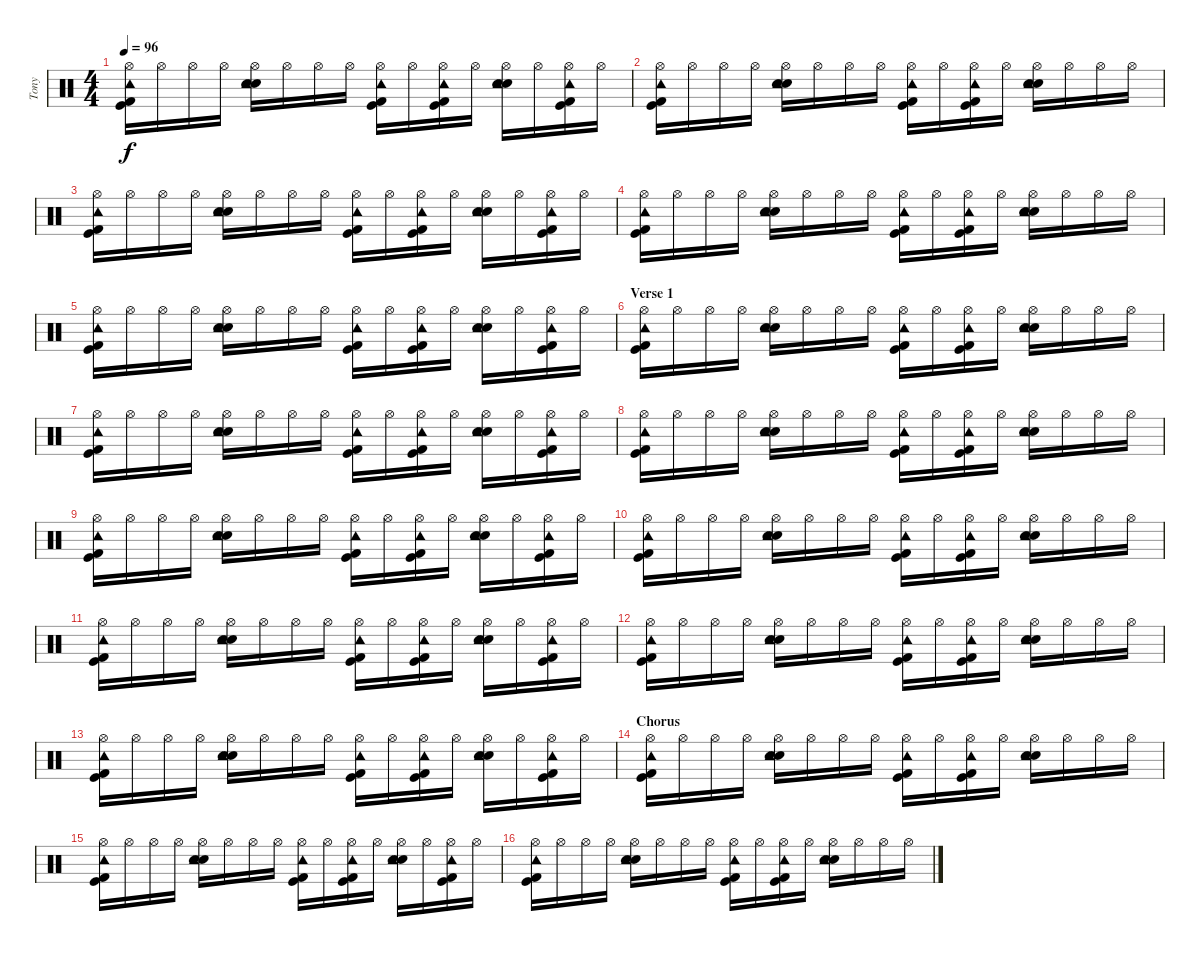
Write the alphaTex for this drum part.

\track ("Tony" "Tony") {instrument percussion}
\staff {score}
\articulation defaults
\ts (4 4)
\tempo 96
\clef neutral
\ks c
("Kick (hit)" "Kick (hit) 2" "Tambourine (hit)" "Hi-Hat (open)").16{dy f} "Hi-Hat (open)".16 "Hi-Hat (open)".16 "Hi-Hat (open)".16 ("Electric Snare (hit)" "Snare (hit) 2" "Tambourine (hit)" "Hi-Hat (open)").16 "Hi-Hat (open)".16 "Hi-Hat (open)".16 "Hi-Hat (open)".16 ("Kick (hit)" "Kick (hit) 2" "Tambourine (hit)" "Hi-Hat (open)").16 "Hi-Hat (open)".16 ("Kick (hit)" "Kick (hit) 2" "Tambourine (hit)" "Hi-Hat (open)").16 "Hi-Hat (open)".16 ("Electric Snare (hit)" "Snare (hit) 2" "Tambourine (hit)" "Hi-Hat (open)").16 "Hi-Hat (open)".16 ("Kick (hit)" "Kick (hit) 2" "Tambourine (hit)" "Hi-Hat (open)").16 "Hi-Hat (open)".16 |
("Kick (hit)" "Kick (hit) 2" "Tambourine (hit)" "Hi-Hat (open)").16 "Hi-Hat (open)".16 "Hi-Hat (open)".16 "Hi-Hat (open)".16 ("Electric Snare (hit)" "Snare (hit) 2" "Tambourine (hit)" "Hi-Hat (open)").16 "Hi-Hat (open)".16 "Hi-Hat (open)".16 "Hi-Hat (open)".16 ("Kick (hit)" "Kick (hit) 2" "Tambourine (hit)" "Hi-Hat (open)").16 "Hi-Hat (open)".16 ("Kick (hit)" "Kick (hit) 2" "Tambourine (hit)" "Hi-Hat (open)").16 "Hi-Hat (open)".16 ("Electric Snare (hit)" "Snare (hit) 2" "Tambourine (hit)" "Hi-Hat (open)").16 "Hi-Hat (open)".16 "Hi-Hat (open)".16 "Hi-Hat (open)".16 |
("Kick (hit)" "Kick (hit) 2" "Tambourine (hit)" "Hi-Hat (open)").16 "Hi-Hat (open)".16 "Hi-Hat (open)".16 "Hi-Hat (open)".16 ("Electric Snare (hit)" "Snare (hit) 2" "Tambourine (hit)" "Hi-Hat (open)").16 "Hi-Hat (open)".16 "Hi-Hat (open)".16 "Hi-Hat (open)".16 ("Kick (hit)" "Kick (hit) 2" "Tambourine (hit)" "Hi-Hat (open)").16 "Hi-Hat (open)".16 ("Kick (hit)" "Kick (hit) 2" "Tambourine (hit)" "Hi-Hat (open)").16 "Hi-Hat (open)".16 ("Electric Snare (hit)" "Snare (hit) 2" "Tambourine (hit)" "Hi-Hat (open)").16 "Hi-Hat (open)".16 ("Kick (hit)" "Kick (hit) 2" "Tambourine (hit)" "Hi-Hat (open)").16 "Hi-Hat (open)".16 |
("Kick (hit)" "Kick (hit) 2" "Tambourine (hit)" "Hi-Hat (open)").16 "Hi-Hat (open)".16 "Hi-Hat (open)".16 "Hi-Hat (open)".16 ("Electric Snare (hit)" "Snare (hit) 2" "Tambourine (hit)" "Hi-Hat (open)").16 "Hi-Hat (open)".16 "Hi-Hat (open)".16 "Hi-Hat (open)".16 ("Kick (hit)" "Kick (hit) 2" "Tambourine (hit)" "Hi-Hat (open)").16 "Hi-Hat (open)".16 ("Kick (hit)" "Kick (hit) 2" "Tambourine (hit)" "Hi-Hat (open)").16 "Hi-Hat (open)".16 ("Electric Snare (hit)" "Snare (hit) 2" "Tambourine (hit)" "Hi-Hat (open)").16 "Hi-Hat (open)".16 "Hi-Hat (open)".16 "Hi-Hat (open)".16 |
("Kick (hit)" "Kick (hit) 2" "Tambourine (hit)" "Hi-Hat (open)").16 "Hi-Hat (open)".16 "Hi-Hat (open)".16 "Hi-Hat (open)".16 ("Electric Snare (hit)" "Snare (hit) 2" "Tambourine (hit)" "Hi-Hat (open)").16 "Hi-Hat (open)".16 "Hi-Hat (open)".16 "Hi-Hat (open)".16 ("Kick (hit)" "Kick (hit) 2" "Tambourine (hit)" "Hi-Hat (open)").16 "Hi-Hat (open)".16 ("Kick (hit)" "Kick (hit) 2" "Tambourine (hit)" "Hi-Hat (open)").16 "Hi-Hat (open)".16 ("Electric Snare (hit)" "Snare (hit) 2" "Tambourine (hit)" "Hi-Hat (open)").16 "Hi-Hat (open)".16 ("Kick (hit)" "Kick (hit) 2" "Tambourine (hit)" "Hi-Hat (open)").16 "Hi-Hat (open)".16 |
\section ("" "Verse 1")
("Kick (hit)" "Kick (hit) 2" "Tambourine (hit)" "Hi-Hat (open)").16 "Hi-Hat (open)".16 "Hi-Hat (open)".16 "Hi-Hat (open)".16 ("Electric Snare (hit)" "Snare (hit) 2" "Tambourine (hit)" "Hi-Hat (open)").16 "Hi-Hat (open)".16 "Hi-Hat (open)".16 "Hi-Hat (open)".16 ("Kick (hit)" "Kick (hit) 2" "Tambourine (hit)" "Hi-Hat (open)").16 "Hi-Hat (open)".16 ("Kick (hit)" "Kick (hit) 2" "Tambourine (hit)" "Hi-Hat (open)").16 "Hi-Hat (open)".16 ("Electric Snare (hit)" "Snare (hit) 2" "Tambourine (hit)" "Hi-Hat (open)").16 "Hi-Hat (open)".16 "Hi-Hat (open)".16 "Hi-Hat (open)".16 |
("Kick (hit)" "Kick (hit) 2" "Tambourine (hit)" "Hi-Hat (open)").16 "Hi-Hat (open)".16 "Hi-Hat (open)".16 "Hi-Hat (open)".16 ("Electric Snare (hit)" "Snare (hit) 2" "Tambourine (hit)" "Hi-Hat (open)").16 "Hi-Hat (open)".16 "Hi-Hat (open)".16 "Hi-Hat (open)".16 ("Kick (hit)" "Kick (hit) 2" "Tambourine (hit)" "Hi-Hat (open)").16 "Hi-Hat (open)".16 ("Kick (hit)" "Kick (hit) 2" "Tambourine (hit)" "Hi-Hat (open)").16 "Hi-Hat (open)".16 ("Electric Snare (hit)" "Snare (hit) 2" "Tambourine (hit)" "Hi-Hat (open)").16 "Hi-Hat (open)".16 ("Kick (hit)" "Kick (hit) 2" "Tambourine (hit)" "Hi-Hat (open)").16 "Hi-Hat (open)".16 |
("Kick (hit)" "Kick (hit) 2" "Tambourine (hit)" "Hi-Hat (open)").16 "Hi-Hat (open)".16 "Hi-Hat (open)".16 "Hi-Hat (open)".16 ("Electric Snare (hit)" "Snare (hit) 2" "Tambourine (hit)" "Hi-Hat (open)").16 "Hi-Hat (open)".16 "Hi-Hat (open)".16 "Hi-Hat (open)".16 ("Kick (hit)" "Kick (hit) 2" "Tambourine (hit)" "Hi-Hat (open)").16 "Hi-Hat (open)".16 ("Kick (hit)" "Kick (hit) 2" "Tambourine (hit)" "Hi-Hat (open)").16 "Hi-Hat (open)".16 ("Electric Snare (hit)" "Snare (hit) 2" "Tambourine (hit)" "Hi-Hat (open)").16 "Hi-Hat (open)".16 "Hi-Hat (open)".16 "Hi-Hat (open)".16 |
("Kick (hit)" "Kick (hit) 2" "Tambourine (hit)" "Hi-Hat (open)").16 "Hi-Hat (open)".16 "Hi-Hat (open)".16 "Hi-Hat (open)".16 ("Electric Snare (hit)" "Snare (hit) 2" "Tambourine (hit)" "Hi-Hat (open)").16 "Hi-Hat (open)".16 "Hi-Hat (open)".16 "Hi-Hat (open)".16 ("Kick (hit)" "Kick (hit) 2" "Tambourine (hit)" "Hi-Hat (open)").16 "Hi-Hat (open)".16 ("Kick (hit)" "Kick (hit) 2" "Tambourine (hit)" "Hi-Hat (open)").16 "Hi-Hat (open)".16 ("Electric Snare (hit)" "Snare (hit) 2" "Tambourine (hit)" "Hi-Hat (open)").16 "Hi-Hat (open)".16 ("Kick (hit)" "Kick (hit) 2" "Tambourine (hit)" "Hi-Hat (open)").16 "Hi-Hat (open)".16 |
("Kick (hit)" "Kick (hit) 2" "Tambourine (hit)" "Hi-Hat (open)").16 "Hi-Hat (open)".16 "Hi-Hat (open)".16 "Hi-Hat (open)".16 ("Electric Snare (hit)" "Snare (hit) 2" "Tambourine (hit)" "Hi-Hat (open)").16 "Hi-Hat (open)".16 "Hi-Hat (open)".16 "Hi-Hat (open)".16 ("Kick (hit)" "Kick (hit) 2" "Tambourine (hit)" "Hi-Hat (open)").16 "Hi-Hat (open)".16 ("Kick (hit)" "Kick (hit) 2" "Tambourine (hit)" "Hi-Hat (open)").16 "Hi-Hat (open)".16 ("Electric Snare (hit)" "Snare (hit) 2" "Tambourine (hit)" "Hi-Hat (open)").16 "Hi-Hat (open)".16 "Hi-Hat (open)".16 "Hi-Hat (open)".16 |
("Kick (hit)" "Kick (hit) 2" "Tambourine (hit)" "Hi-Hat (open)").16 "Hi-Hat (open)".16 "Hi-Hat (open)".16 "Hi-Hat (open)".16 ("Electric Snare (hit)" "Snare (hit) 2" "Tambourine (hit)" "Hi-Hat (open)").16 "Hi-Hat (open)".16 "Hi-Hat (open)".16 "Hi-Hat (open)".16 ("Kick (hit)" "Kick (hit) 2" "Tambourine (hit)" "Hi-Hat (open)").16 "Hi-Hat (open)".16 ("Kick (hit)" "Kick (hit) 2" "Tambourine (hit)" "Hi-Hat (open)").16 "Hi-Hat (open)".16 ("Electric Snare (hit)" "Snare (hit) 2" "Tambourine (hit)" "Hi-Hat (open)").16 "Hi-Hat (open)".16 ("Kick (hit)" "Kick (hit) 2" "Tambourine (hit)" "Hi-Hat (open)").16 "Hi-Hat (open)".16 |
("Kick (hit)" "Kick (hit) 2" "Tambourine (hit)" "Hi-Hat (open)").16 "Hi-Hat (open)".16 "Hi-Hat (open)".16 "Hi-Hat (open)".16 ("Electric Snare (hit)" "Snare (hit) 2" "Tambourine (hit)" "Hi-Hat (open)").16 "Hi-Hat (open)".16 "Hi-Hat (open)".16 "Hi-Hat (open)".16 ("Kick (hit)" "Kick (hit) 2" "Tambourine (hit)" "Hi-Hat (open)").16 "Hi-Hat (open)".16 ("Kick (hit)" "Kick (hit) 2" "Tambourine (hit)" "Hi-Hat (open)").16 "Hi-Hat (open)".16 ("Electric Snare (hit)" "Snare (hit) 2" "Tambourine (hit)" "Hi-Hat (open)").16 "Hi-Hat (open)".16 "Hi-Hat (open)".16 "Hi-Hat (open)".16 |
("Kick (hit)" "Kick (hit) 2" "Tambourine (hit)" "Hi-Hat (open)").16 "Hi-Hat (open)".16 "Hi-Hat (open)".16 "Hi-Hat (open)".16 ("Electric Snare (hit)" "Snare (hit) 2" "Tambourine (hit)" "Hi-Hat (open)").16 "Hi-Hat (open)".16 "Hi-Hat (open)".16 "Hi-Hat (open)".16 ("Kick (hit)" "Kick (hit) 2" "Tambourine (hit)" "Hi-Hat (open)").16 "Hi-Hat (open)".16 ("Kick (hit)" "Kick (hit) 2" "Tambourine (hit)" "Hi-Hat (open)").16 "Hi-Hat (open)".16 ("Electric Snare (hit)" "Snare (hit) 2" "Tambourine (hit)" "Hi-Hat (open)").16 "Hi-Hat (open)".16 ("Kick (hit)" "Kick (hit) 2" "Tambourine (hit)" "Hi-Hat (open)").16 "Hi-Hat (open)".16 |
\section ("" "Chorus")
("Kick (hit)" "Kick (hit) 2" "Tambourine (hit)" "Hi-Hat (open)").16 "Hi-Hat (open)".16 "Hi-Hat (open)".16 "Hi-Hat (open)".16 ("Electric Snare (hit)" "Snare (hit) 2" "Tambourine (hit)" "Hi-Hat (open)").16 "Hi-Hat (open)".16 "Hi-Hat (open)".16 "Hi-Hat (open)".16 ("Kick (hit)" "Kick (hit) 2" "Tambourine (hit)" "Hi-Hat (open)").16 "Hi-Hat (open)".16 ("Kick (hit)" "Kick (hit) 2" "Tambourine (hit)" "Hi-Hat (open)").16 "Hi-Hat (open)".16 ("Electric Snare (hit)" "Snare (hit) 2" "Tambourine (hit)" "Hi-Hat (open)").16 "Hi-Hat (open)".16 "Hi-Hat (open)".16 "Hi-Hat (open)".16 |
("Kick (hit)" "Kick (hit) 2" "Tambourine (hit)" "Hi-Hat (open)").16 "Hi-Hat (open)".16 "Hi-Hat (open)".16 "Hi-Hat (open)".16 ("Electric Snare (hit)" "Snare (hit) 2" "Tambourine (hit)" "Hi-Hat (open)").16 "Hi-Hat (open)".16 "Hi-Hat (open)".16 "Hi-Hat (open)".16 ("Kick (hit)" "Kick (hit) 2" "Tambourine (hit)" "Hi-Hat (open)").16 "Hi-Hat (open)".16 ("Kick (hit)" "Kick (hit) 2" "Tambourine (hit)" "Hi-Hat (open)").16 "Hi-Hat (open)".16 ("Electric Snare (hit)" "Snare (hit) 2" "Tambourine (hit)" "Hi-Hat (open)").16 "Hi-Hat (open)".16 ("Kick (hit)" "Kick (hit) 2" "Tambourine (hit)" "Hi-Hat (open)").16 "Hi-Hat (open)".16 |
("Kick (hit)" "Kick (hit) 2" "Tambourine (hit)" "Hi-Hat (open)").16 "Hi-Hat (open)".16 "Hi-Hat (open)".16 "Hi-Hat (open)".16 ("Electric Snare (hit)" "Snare (hit) 2" "Tambourine (hit)" "Hi-Hat (open)").16 "Hi-Hat (open)".16 "Hi-Hat (open)".16 "Hi-Hat (open)".16 ("Kick (hit)" "Kick (hit) 2" "Tambourine (hit)" "Hi-Hat (open)").16 "Hi-Hat (open)".16 ("Kick (hit)" "Kick (hit) 2" "Tambourine (hit)" "Hi-Hat (open)").16 "Hi-Hat (open)".16 ("Electric Snare (hit)" "Snare (hit) 2" "Tambourine (hit)" "Hi-Hat (open)").16 "Hi-Hat (open)".16 "Hi-Hat (open)".16 "Hi-Hat (open)".16
